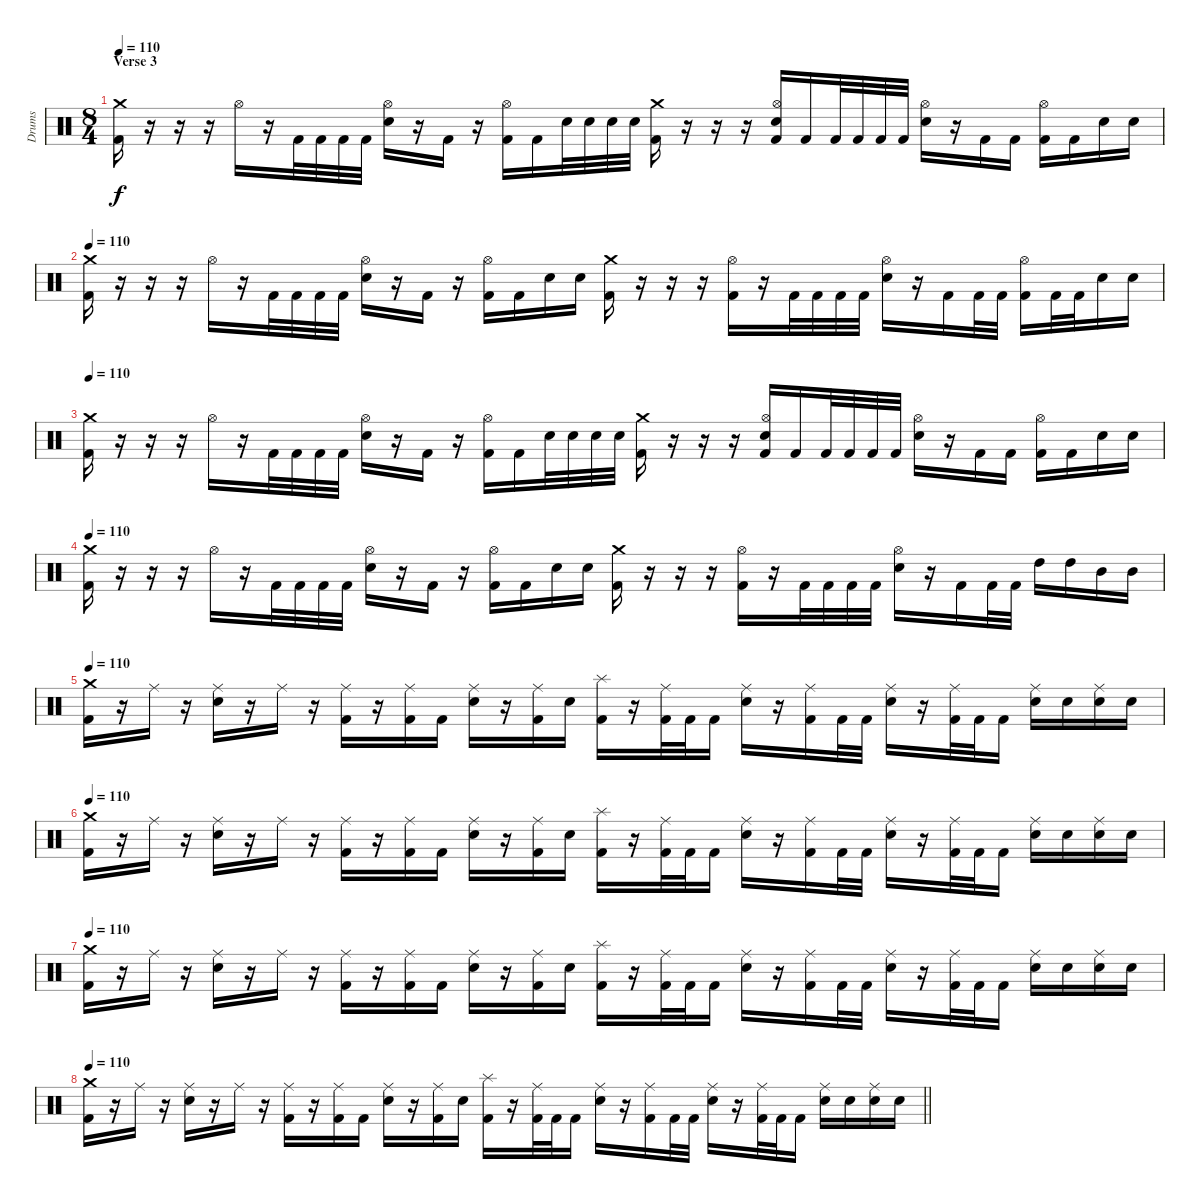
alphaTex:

\track ("Drums" "Drums") {instrument percussion}
\staff
\articulation defaults
\ts (8 4)
\section ("" "Verse 3")
\tempo 110
\clef neutral
\ks c
("Crash medium (hit)" "Kick (hit) 2").16{dy f} r.16 r.16 r.16 "Hi-Hat (open)".16 r.16 "Kick (hit) 2".32 "Kick (hit) 2".32 "Kick (hit) 2".32 "Kick (hit) 2".32 ("Hi-Hat (open)" "Electric Snare (hit)").16 r.16 "Kick (hit) 2".16 r.16 ("Hi-Hat (open)" "Kick (hit) 2").16 "Kick (hit) 2".16 "Electric Snare (hit)".32 "Electric Snare (hit)".32 "Electric Snare (hit)".32 "Electric Snare (hit)".32 ("Crash medium (hit)" "Kick (hit) 2").16 r.16 r.16 r.16 ("Hi-Hat (open)" "Electric Snare (hit)" "Kick (hit) 2").16 "Kick (hit) 2".16 "Kick (hit) 2".32 "Kick (hit) 2".32 "Kick (hit) 2".32 "Kick (hit) 2".32 ("Hi-Hat (open)" "Electric Snare (hit)").16 r.16 "Kick (hit) 2".16 "Kick (hit) 2".16 ("Hi-Hat (open)" "Kick (hit) 2").16 "Kick (hit) 2".16 "Electric Snare (hit)".16 "Electric Snare (hit)".16 |
\tempo 110
("Crash medium (hit)" "Kick (hit) 2").16 r.16 r.16 r.16 "Hi-Hat (open)".16 r.16 "Kick (hit) 2".32 "Kick (hit) 2".32 "Kick (hit) 2".32 "Kick (hit) 2".32 ("Hi-Hat (open)" "Electric Snare (hit)").16 r.16 "Kick (hit) 2".16 r.16 ("Hi-Hat (open)" "Kick (hit) 2").16 "Kick (hit) 2".16 "Electric Snare (hit)".16 "Electric Snare (hit)".16 ("Crash medium (hit)" "Kick (hit) 2").16 r.16 r.16 r.16 ("Hi-Hat (open)" "Kick (hit) 2").16 r.16 "Kick (hit) 2".32 "Kick (hit) 2".32 "Kick (hit) 2".32 "Kick (hit) 2".32 ("Hi-Hat (open)" "Electric Snare (hit)").16 r.16 "Kick (hit) 2".16 "Kick (hit) 2".32 "Kick (hit) 2".32 ("Hi-Hat (open)" "Kick (hit) 2").16 "Kick (hit) 2".32 "Kick (hit) 2".32 "Electric Snare (hit)".16 "Electric Snare (hit)".16 |
\tempo 110
("Crash medium (hit)" "Kick (hit) 2").16 r.16 r.16 r.16 "Hi-Hat (open)".16 r.16 "Kick (hit) 2".32 "Kick (hit) 2".32 "Kick (hit) 2".32 "Kick (hit) 2".32 ("Hi-Hat (open)" "Electric Snare (hit)").16 r.16 "Kick (hit) 2".16 r.16 ("Hi-Hat (open)" "Kick (hit) 2").16 "Kick (hit) 2".16 "Electric Snare (hit)".32 "Electric Snare (hit)".32 "Electric Snare (hit)".32 "Electric Snare (hit)".32 ("Crash medium (hit)" "Kick (hit) 2").16 r.16 r.16 r.16 ("Hi-Hat (open)" "Electric Snare (hit)" "Kick (hit) 2").16 "Kick (hit) 2".16 "Kick (hit) 2".32 "Kick (hit) 2".32 "Kick (hit) 2".32 "Kick (hit) 2".32 ("Hi-Hat (open)" "Electric Snare (hit)").16 r.16 "Kick (hit) 2".16 "Kick (hit) 2".16 ("Hi-Hat (open)" "Kick (hit) 2").16 "Kick (hit) 2".16 "Electric Snare (hit)".16 "Electric Snare (hit)".16 |
\tempo 110
("Crash medium (hit)" "Kick (hit) 2").16 r.16 r.16 r.16 "Hi-Hat (open)".16 r.16 "Kick (hit) 2".32 "Kick (hit) 2".32 "Kick (hit) 2".32 "Kick (hit) 2".32 ("Hi-Hat (open)" "Electric Snare (hit)").16 r.16 "Kick (hit) 2".16 r.16 ("Hi-Hat (open)" "Kick (hit) 2").16 "Kick (hit) 2".16 "Electric Snare (hit)".16 "Electric Snare (hit)".16 ("Crash medium (hit)" "Kick (hit) 2").16 r.16 r.16 r.16 ("Hi-Hat (open)" "Kick (hit) 2").16 r.16 "Kick (hit) 2".32 "Kick (hit) 2".32 "Kick (hit) 2".32 "Kick (hit) 2".32 ("Hi-Hat (open)" "Electric Snare (hit)").16 r.16 "Kick (hit) 2".16 "Kick (hit) 2".32 "Kick (hit) 2".32 "High Tom (hit)".16 "High Tom (hit)".16 "Mid Tom (hit)".16 "Mid Tom (hit)".16 |
\tempo 110
("Crash medium (hit)" "Kick (hit) 2").16 r.16 "Ride (middle)".16 r.16 ("Ride (middle)" "Electric Snare (hit)").16 r.16 "Ride (middle)".16 r.16 ("Ride (middle)" "Kick (hit) 2").16 r.16 ("Ride (middle)" "Kick (hit) 2").16 "Kick (hit) 2".16 ("Ride (middle)" "Electric Snare (hit)").16 r.16 ("Ride (middle)" "Kick (hit) 2").16 "Electric Snare (hit)".16 ("Splash (hit)" "Kick (hit) 2").16 r.16 ("Ride (middle)" "Kick (hit) 2").32 "Kick (hit) 2".32 "Kick (hit) 2".16 ("Ride (middle)" "Electric Snare (hit)").16 r.16 ("Ride (middle)" "Kick (hit) 2").16 "Kick (hit) 2".32 "Kick (hit) 2".32 ("Ride (middle)" "Electric Snare (hit)").16 r.16 ("Ride (middle)" "Kick (hit) 2").32 "Kick (hit) 2".32 "Kick (hit) 2".16 ("Ride (middle)" "Electric Snare (hit)").16 "Electric Snare (hit)".16 ("Ride (middle)" "Electric Snare (hit)").16 "Electric Snare (hit)".16 |
\tempo 110
("Crash medium (hit)" "Kick (hit) 2").16 r.16 "Ride (middle)".16 r.16 ("Ride (middle)" "Electric Snare (hit)").16 r.16 "Ride (middle)".16 r.16 ("Ride (middle)" "Kick (hit) 2").16 r.16 ("Ride (middle)" "Kick (hit) 2").16 "Kick (hit) 2".16 ("Ride (middle)" "Electric Snare (hit)").16 r.16 ("Ride (middle)" "Kick (hit) 2").16 "Electric Snare (hit)".16 ("Splash (hit)" "Kick (hit) 2").16 r.16 ("Ride (middle)" "Kick (hit) 2").32 "Kick (hit) 2".32 "Kick (hit) 2".16 ("Ride (middle)" "Electric Snare (hit)").16 r.16 ("Ride (middle)" "Kick (hit) 2").16 "Kick (hit) 2".32 "Kick (hit) 2".32 ("Ride (middle)" "Electric Snare (hit)").16 r.16 ("Ride (middle)" "Kick (hit) 2").32 "Kick (hit) 2".32 "Kick (hit) 2".16 ("Ride (middle)" "Electric Snare (hit)").16 "Electric Snare (hit)".16 ("Ride (middle)" "Electric Snare (hit)").16 "Electric Snare (hit)".16 |
\tempo 110
("Crash medium (hit)" "Kick (hit) 2").16 r.16 "Ride (middle)".16 r.16 ("Ride (middle)" "Electric Snare (hit)").16 r.16 "Ride (middle)".16 r.16 ("Ride (middle)" "Kick (hit) 2").16 r.16 ("Ride (middle)" "Kick (hit) 2").16 "Kick (hit) 2".16 ("Ride (middle)" "Electric Snare (hit)").16 r.16 ("Ride (middle)" "Kick (hit) 2").16 "Electric Snare (hit)".16 ("Splash (hit)" "Kick (hit) 2").16 r.16 ("Ride (middle)" "Kick (hit) 2").32 "Kick (hit) 2".32 "Kick (hit) 2".16 ("Ride (middle)" "Electric Snare (hit)").16 r.16 ("Ride (middle)" "Kick (hit) 2").16 "Kick (hit) 2".32 "Kick (hit) 2".32 ("Ride (middle)" "Electric Snare (hit)").16 r.16 ("Ride (middle)" "Kick (hit) 2").32 "Kick (hit) 2".32 "Kick (hit) 2".16 ("Ride (middle)" "Electric Snare (hit)").16 "Electric Snare (hit)".16 ("Ride (middle)" "Electric Snare (hit)").16 "Electric Snare (hit)".16 |
\tempo 110
\barLineRight lightlight
("Crash medium (hit)" "Kick (hit) 2").16 r.16 "Ride (middle)".16 r.16 ("Ride (middle)" "Electric Snare (hit)").16 r.16 "Ride (middle)".16 r.16 ("Ride (middle)" "Kick (hit) 2").16 r.16 ("Ride (middle)" "Kick (hit) 2").16 "Kick (hit) 2".16 ("Ride (middle)" "Electric Snare (hit)").16 r.16 ("Ride (middle)" "Kick (hit) 2").16 "Electric Snare (hit)".16 ("Splash (hit)" "Kick (hit) 2").16 r.16 ("Ride (middle)" "Kick (hit) 2").32 "Kick (hit) 2".32 "Kick (hit) 2".16 ("Ride (middle)" "Electric Snare (hit)").16 r.16 ("Ride (middle)" "Kick (hit) 2").16 "Kick (hit) 2".32 "Kick (hit) 2".32 ("Ride (middle)" "Electric Snare (hit)").16 r.16 ("Ride (middle)" "Kick (hit) 2").32 "Kick (hit) 2".32 "Kick (hit) 2".16 ("Ride (middle)" "Electric Snare (hit)").16 "Electric Snare (hit)".16 ("Ride (middle)" "Electric Snare (hit)").16 "Electric Snare (hit)".16
